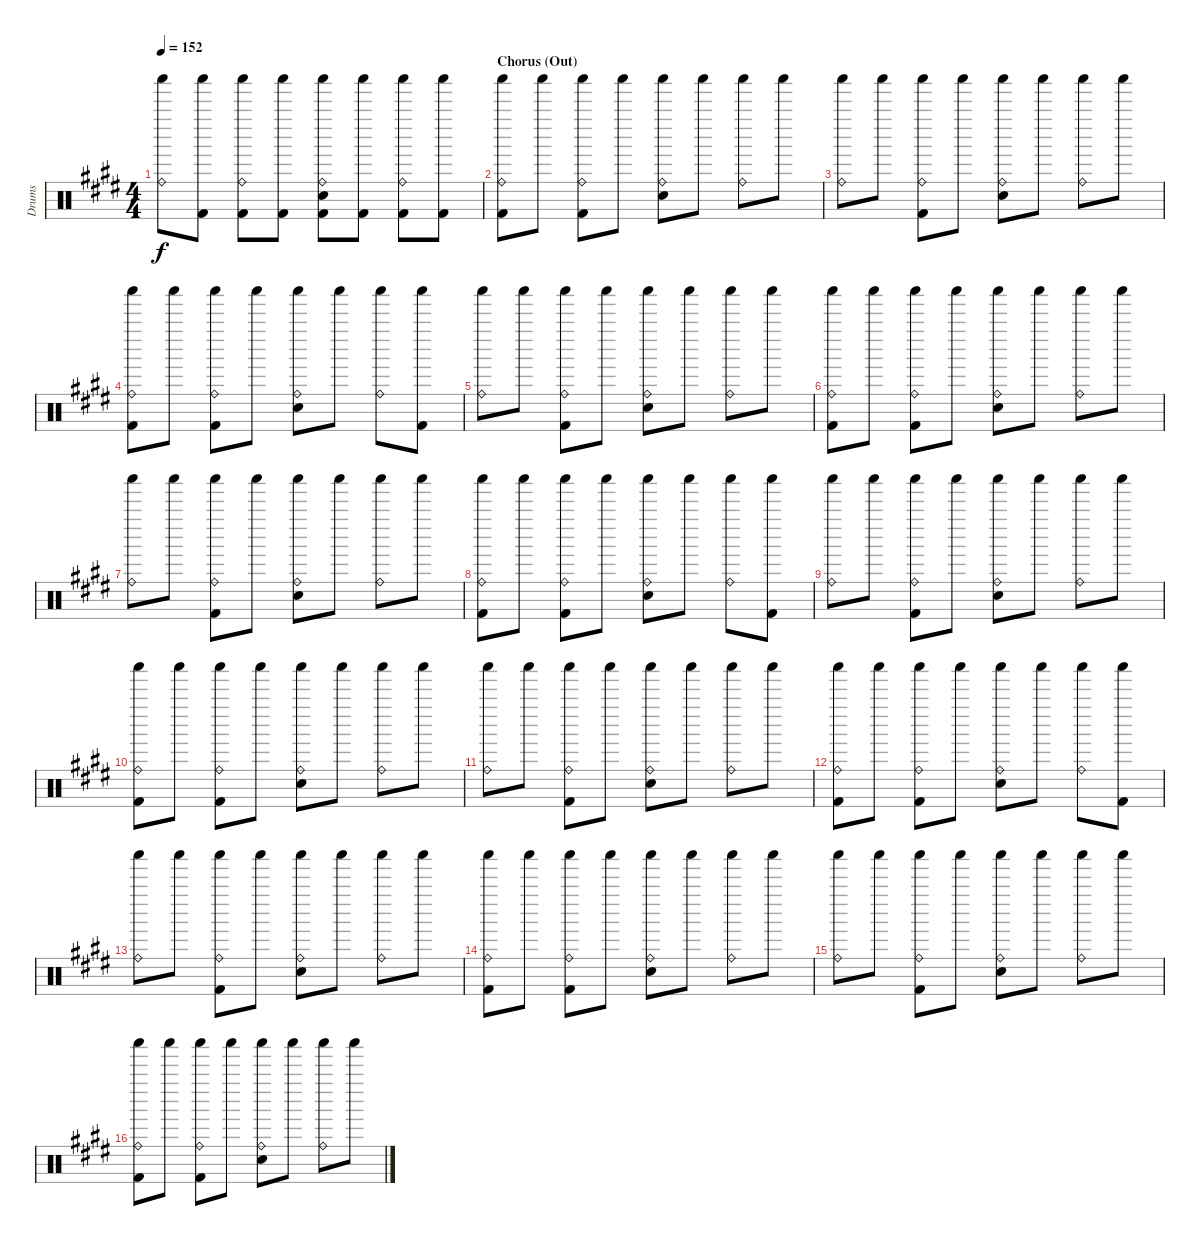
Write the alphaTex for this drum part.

\track ("Drums" "Drums") {instrument percussion}
\staff {score}
\articulation defaults
\ts (4 4)
\tempo 152
\clef neutral
\ks c#minor
("Ride (bell)" "Shaker (hit)").8{dy f} ("Kick (hit) 2" "Shaker (hit)").8 ("Ride (bell)" "Kick (hit) 2" "Shaker (hit)").8 ("Kick (hit) 2" "Shaker (hit)").8 ("Ride (bell)" "Snare (hit) 2" "Kick (hit) 2" "Shaker (hit)").8 ("Kick (hit) 2" "Shaker (hit)").8 ("Ride (bell)" "Kick (hit) 2" "Shaker (hit)").8 ("Kick (hit) 2" "Shaker (hit)").8 |
\section ("" "Chorus (Out)")
("Ride (bell)" "Kick (hit) 2" "Shaker (hit)").8 "Shaker (hit)".8 ("Ride (bell)" "Kick (hit) 2" "Shaker (hit)").8 "Shaker (hit)".8 ("Ride (bell)" "Snare (hit) 2" "Shaker (hit)").8 "Shaker (hit)".8 ("Ride (bell)" "Shaker (hit)").8 "Shaker (hit)".8 |
("Ride (bell)" "Shaker (hit)").8 "Shaker (hit)".8 ("Ride (bell)" "Kick (hit) 2" "Shaker (hit)").8 "Shaker (hit)".8 ("Ride (bell)" "Snare (hit) 2" "Shaker (hit)").8 "Shaker (hit)".8 ("Ride (bell)" "Shaker (hit)").8 "Shaker (hit)".8 |
("Ride (bell)" "Kick (hit) 2" "Shaker (hit)").8 "Shaker (hit)".8 ("Ride (bell)" "Kick (hit) 2" "Shaker (hit)").8 "Shaker (hit)".8 ("Ride (bell)" "Snare (hit) 2" "Shaker (hit)").8 "Shaker (hit)".8 ("Ride (bell)" "Shaker (hit)").8 ("Kick (hit) 2" "Shaker (hit)").8 |
("Ride (bell)" "Shaker (hit)").8 "Shaker (hit)".8 ("Ride (bell)" "Kick (hit) 2" "Shaker (hit)").8 "Shaker (hit)".8 ("Ride (bell)" "Snare (hit) 2" "Shaker (hit)").8 "Shaker (hit)".8 ("Ride (bell)" "Shaker (hit)").8 "Shaker (hit)".8 |
("Ride (bell)" "Kick (hit) 2" "Shaker (hit)").8 "Shaker (hit)".8 ("Ride (bell)" "Kick (hit) 2" "Shaker (hit)").8 "Shaker (hit)".8 ("Ride (bell)" "Snare (hit) 2" "Shaker (hit)").8 "Shaker (hit)".8 ("Ride (bell)" "Shaker (hit)").8 "Shaker (hit)".8 |
("Ride (bell)" "Shaker (hit)").8 "Shaker (hit)".8 ("Ride (bell)" "Kick (hit) 2" "Shaker (hit)").8 "Shaker (hit)".8 ("Ride (bell)" "Snare (hit) 2" "Shaker (hit)").8 "Shaker (hit)".8 ("Ride (bell)" "Shaker (hit)").8 "Shaker (hit)".8 |
("Ride (bell)" "Kick (hit) 2" "Shaker (hit)").8 "Shaker (hit)".8 ("Ride (bell)" "Kick (hit) 2" "Shaker (hit)").8 "Shaker (hit)".8 ("Ride (bell)" "Snare (hit) 2" "Shaker (hit)").8 "Shaker (hit)".8 ("Ride (bell)" "Shaker (hit)").8 ("Kick (hit) 2" "Shaker (hit)").8 |
("Ride (bell)" "Shaker (hit)").8 "Shaker (hit)".8 ("Ride (bell)" "Kick (hit) 2" "Shaker (hit)").8 "Shaker (hit)".8 ("Ride (bell)" "Snare (hit) 2" "Shaker (hit)").8 "Shaker (hit)".8 ("Ride (bell)" "Shaker (hit)").8 "Shaker (hit)".8 |
("Ride (bell)" "Kick (hit) 2" "Shaker (hit)").8 "Shaker (hit)".8 ("Ride (bell)" "Kick (hit) 2" "Shaker (hit)").8 "Shaker (hit)".8 ("Ride (bell)" "Snare (hit) 2" "Shaker (hit)").8 "Shaker (hit)".8 ("Ride (bell)" "Shaker (hit)").8 "Shaker (hit)".8 |
("Ride (bell)" "Shaker (hit)").8 "Shaker (hit)".8 ("Ride (bell)" "Kick (hit) 2" "Shaker (hit)").8 "Shaker (hit)".8 ("Ride (bell)" "Snare (hit) 2" "Shaker (hit)").8 "Shaker (hit)".8 ("Ride (bell)" "Shaker (hit)").8 "Shaker (hit)".8 |
("Ride (bell)" "Kick (hit) 2" "Shaker (hit)").8 "Shaker (hit)".8 ("Ride (bell)" "Kick (hit) 2" "Shaker (hit)").8 "Shaker (hit)".8 ("Ride (bell)" "Snare (hit) 2" "Shaker (hit)").8 "Shaker (hit)".8 ("Ride (bell)" "Shaker (hit)").8 ("Kick (hit) 2" "Shaker (hit)").8 |
("Ride (bell)" "Shaker (hit)").8 "Shaker (hit)".8 ("Ride (bell)" "Kick (hit) 2" "Shaker (hit)").8 "Shaker (hit)".8 ("Ride (bell)" "Snare (hit) 2" "Shaker (hit)").8 "Shaker (hit)".8 ("Ride (bell)" "Shaker (hit)").8 "Shaker (hit)".8 |
("Ride (bell)" "Kick (hit) 2" "Shaker (hit)").8 "Shaker (hit)".8 ("Ride (bell)" "Kick (hit) 2" "Shaker (hit)").8 "Shaker (hit)".8 ("Ride (bell)" "Snare (hit) 2" "Shaker (hit)").8 "Shaker (hit)".8 ("Ride (bell)" "Shaker (hit)").8 "Shaker (hit)".8 |
("Ride (bell)" "Shaker (hit)").8 "Shaker (hit)".8 ("Ride (bell)" "Kick (hit) 2" "Shaker (hit)").8 "Shaker (hit)".8 ("Ride (bell)" "Snare (hit) 2" "Shaker (hit)").8 "Shaker (hit)".8 ("Ride (bell)" "Shaker (hit)").8 "Shaker (hit)".8 |
("Ride (bell)" "Kick (hit) 2" "Shaker (hit)").8 "Shaker (hit)".8 ("Ride (bell)" "Kick (hit) 2" "Shaker (hit)").8 "Shaker (hit)".8 ("Ride (bell)" "Snare (hit) 2" "Shaker (hit)").8 "Shaker (hit)".8 ("Ride (bell)" "Shaker (hit)").8 "Shaker (hit)".8
